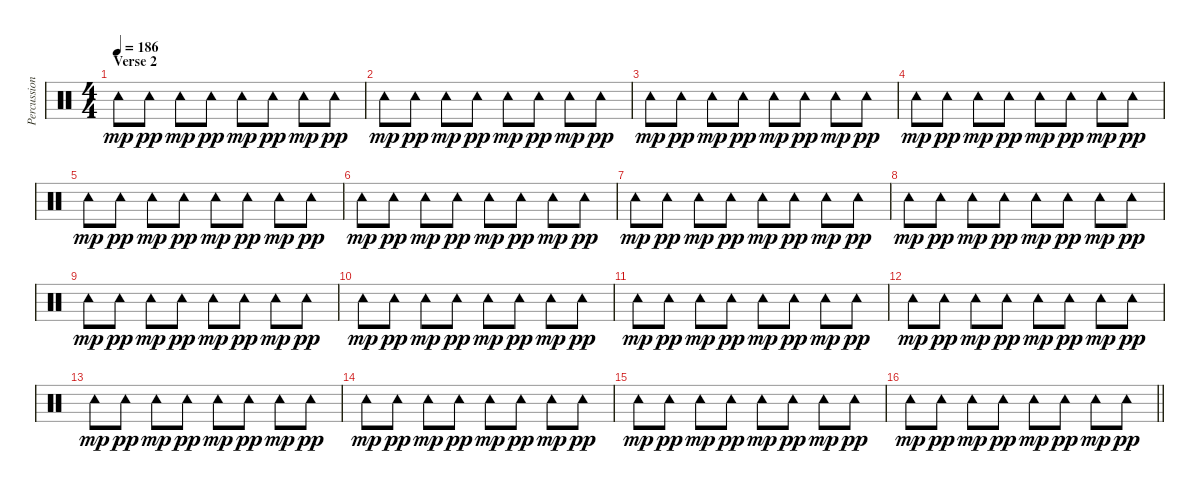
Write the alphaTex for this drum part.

\track ("Percussion" "Percussion") {instrument percussion}
\staff {score}
\articulation defaults
\ts (4 4)
\section ("" "Verse 2")
\tempo 186
\clef neutral
\ks c "Tambourine (hit)".8{dy mp} "Tambourine (hit)".8{dy pp} "Tambourine (hit)".8{dy mp} "Tambourine (hit)".8{dy pp} "Tambourine (hit)".8{dy mp} "Tambourine (hit)".8{dy pp} "Tambourine (hit)".8{dy mp} "Tambourine (hit)".8{dy pp}
|
"Tambourine (hit)".8{dy mp} "Tambourine (hit)".8{dy pp} "Tambourine (hit)".8{dy mp} "Tambourine (hit)".8{dy pp} "Tambourine (hit)".8{dy mp} "Tambourine (hit)".8{dy pp} "Tambourine (hit)".8{dy mp} "Tambourine (hit)".8{dy pp} |
"Tambourine (hit)".8{dy mp} "Tambourine (hit)".8{dy pp} "Tambourine (hit)".8{dy mp} "Tambourine (hit)".8{dy pp} "Tambourine (hit)".8{dy mp} "Tambourine (hit)".8{dy pp} "Tambourine (hit)".8{dy mp} "Tambourine (hit)".8{dy pp} |
"Tambourine (hit)".8{dy mp} "Tambourine (hit)".8{dy pp} "Tambourine (hit)".8{dy mp} "Tambourine (hit)".8{dy pp} "Tambourine (hit)".8{dy mp} "Tambourine (hit)".8{dy pp} "Tambourine (hit)".8{dy mp} "Tambourine (hit)".8{dy pp} |
"Tambourine (hit)".8{dy mp} "Tambourine (hit)".8{dy pp} "Tambourine (hit)".8{dy mp} "Tambourine (hit)".8{dy pp} "Tambourine (hit)".8{dy mp} "Tambourine (hit)".8{dy pp} "Tambourine (hit)".8{dy mp} "Tambourine (hit)".8{dy pp} |
"Tambourine (hit)".8{dy mp} "Tambourine (hit)".8{dy pp} "Tambourine (hit)".8{dy mp} "Tambourine (hit)".8{dy pp} "Tambourine (hit)".8{dy mp} "Tambourine (hit)".8{dy pp} "Tambourine (hit)".8{dy mp} "Tambourine (hit)".8{dy pp} |
"Tambourine (hit)".8{dy mp} "Tambourine (hit)".8{dy pp} "Tambourine (hit)".8{dy mp} "Tambourine (hit)".8{dy pp} "Tambourine (hit)".8{dy mp} "Tambourine (hit)".8{dy pp} "Tambourine (hit)".8{dy mp} "Tambourine (hit)".8{dy pp} |
"Tambourine (hit)".8{dy mp} "Tambourine (hit)".8{dy pp} "Tambourine (hit)".8{dy mp} "Tambourine (hit)".8{dy pp} "Tambourine (hit)".8{dy mp} "Tambourine (hit)".8{dy pp} "Tambourine (hit)".8{dy mp} "Tambourine (hit)".8{dy pp} |
"Tambourine (hit)".8{dy mp} "Tambourine (hit)".8{dy pp} "Tambourine (hit)".8{dy mp} "Tambourine (hit)".8{dy pp} "Tambourine (hit)".8{dy mp} "Tambourine (hit)".8{dy pp} "Tambourine (hit)".8{dy mp} "Tambourine (hit)".8{dy pp} |
"Tambourine (hit)".8{dy mp} "Tambourine (hit)".8{dy pp} "Tambourine (hit)".8{dy mp} "Tambourine (hit)".8{dy pp} "Tambourine (hit)".8{dy mp} "Tambourine (hit)".8{dy pp} "Tambourine (hit)".8{dy mp} "Tambourine (hit)".8{dy pp} |
"Tambourine (hit)".8{dy mp} "Tambourine (hit)".8{dy pp} "Tambourine (hit)".8{dy mp} "Tambourine (hit)".8{dy pp} "Tambourine (hit)".8{dy mp} "Tambourine (hit)".8{dy pp} "Tambourine (hit)".8{dy mp} "Tambourine (hit)".8{dy pp} |
"Tambourine (hit)".8{dy mp} "Tambourine (hit)".8{dy pp} "Tambourine (hit)".8{dy mp} "Tambourine (hit)".8{dy pp} "Tambourine (hit)".8{dy mp} "Tambourine (hit)".8{dy pp} "Tambourine (hit)".8{dy mp} "Tambourine (hit)".8{dy pp} |
"Tambourine (hit)".8{dy mp} "Tambourine (hit)".8{dy pp} "Tambourine (hit)".8{dy mp} "Tambourine (hit)".8{dy pp} "Tambourine (hit)".8{dy mp} "Tambourine (hit)".8{dy pp} "Tambourine (hit)".8{dy mp} "Tambourine (hit)".8{dy pp} |
"Tambourine (hit)".8{dy mp} "Tambourine (hit)".8{dy pp} "Tambourine (hit)".8{dy mp} "Tambourine (hit)".8{dy pp} "Tambourine (hit)".8{dy mp} "Tambourine (hit)".8{dy pp} "Tambourine (hit)".8{dy mp} "Tambourine (hit)".8{dy pp} |
"Tambourine (hit)".8{dy mp} "Tambourine (hit)".8{dy pp} "Tambourine (hit)".8{dy mp} "Tambourine (hit)".8{dy pp} "Tambourine (hit)".8{dy mp} "Tambourine (hit)".8{dy pp} "Tambourine (hit)".8{dy mp} "Tambourine (hit)".8{dy pp} |
\barLineRight lightlight "Tambourine (hit)".8{dy mp} "Tambourine (hit)".8{dy pp} "Tambourine (hit)".8{dy mp} "Tambourine (hit)".8{dy pp} "Tambourine (hit)".8{dy mp} "Tambourine (hit)".8{dy pp} "Tambourine (hit)".8{dy mp} "Tambourine (hit)".8{dy pp}
